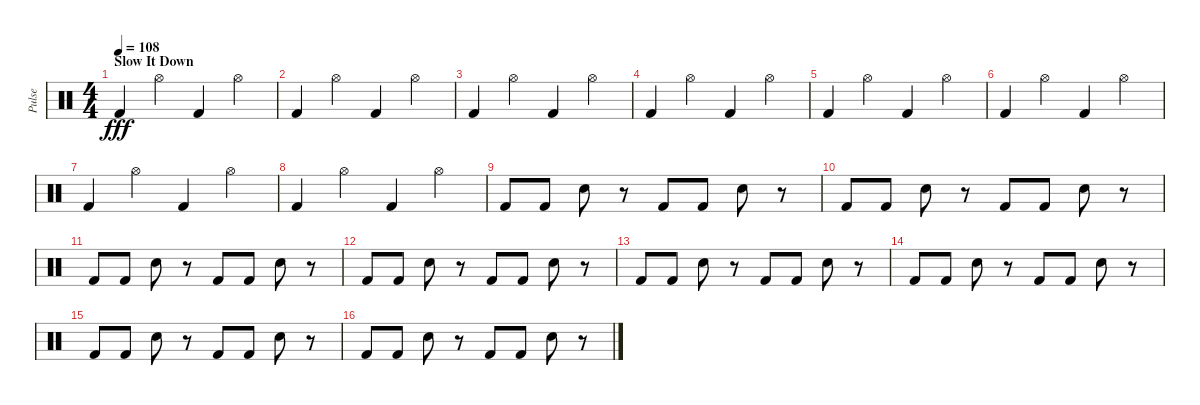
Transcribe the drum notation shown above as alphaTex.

\track ("Pulse" "Pulse") {instrument percussion}
\staff {score}
\articulation defaults
\ts (4 4)
\section ("" "Slow It Down")
\tempo 108
\clef neutral
\ks c "Kick (hit) 2".4{dy fff} "Hi-Hat (open)".4 "Kick (hit) 2".4 "Hi-Hat (open)".4
|
"Kick (hit) 2".4 "Hi-Hat (open)".4 "Kick (hit) 2".4 "Hi-Hat (open)".4 |
"Kick (hit) 2".4 "Hi-Hat (open)".4 "Kick (hit) 2".4 "Hi-Hat (open)".4 |
"Kick (hit) 2".4 "Hi-Hat (open)".4 "Kick (hit) 2".4 "Hi-Hat (open)".4 |
"Kick (hit) 2".4 "Hi-Hat (open)".4 "Kick (hit) 2".4 "Hi-Hat (open)".4 |
"Kick (hit) 2".4 "Hi-Hat (open)".4 "Kick (hit) 2".4 "Hi-Hat (open)".4 |
"Kick (hit) 2".4 "Hi-Hat (open)".4 "Kick (hit) 2".4 "Hi-Hat (open)".4 |
"Kick (hit) 2".4 "Hi-Hat (open)".4 "Kick (hit) 2".4 "Hi-Hat (open)".4 |
"Kick (hit) 2".8 "Kick (hit) 2".8 "Electric Snare (hit)".8 r.8 "Kick (hit) 2".8 "Kick (hit) 2".8 "Electric Snare (hit)".8 r.8 |
"Kick (hit) 2".8 "Kick (hit) 2".8 "Electric Snare (hit)".8 r.8 "Kick (hit) 2".8 "Kick (hit) 2".8 "Electric Snare (hit)".8 r.8 |
"Kick (hit) 2".8 "Kick (hit) 2".8 "Electric Snare (hit)".8 r.8 "Kick (hit) 2".8 "Kick (hit) 2".8 "Electric Snare (hit)".8 r.8 |
"Kick (hit) 2".8 "Kick (hit) 2".8 "Electric Snare (hit)".8 r.8 "Kick (hit) 2".8 "Kick (hit) 2".8 "Electric Snare (hit)".8 r.8 |
"Kick (hit) 2".8 "Kick (hit) 2".8 "Electric Snare (hit)".8 r.8 "Kick (hit) 2".8 "Kick (hit) 2".8 "Electric Snare (hit)".8 r.8 |
"Kick (hit) 2".8 "Kick (hit) 2".8 "Electric Snare (hit)".8 r.8 "Kick (hit) 2".8 "Kick (hit) 2".8 "Electric Snare (hit)".8 r.8 |
"Kick (hit) 2".8 "Kick (hit) 2".8 "Electric Snare (hit)".8 r.8 "Kick (hit) 2".8 "Kick (hit) 2".8 "Electric Snare (hit)".8 r.8 |
"Kick (hit) 2".8 "Kick (hit) 2".8 "Electric Snare (hit)".8 r.8 "Kick (hit) 2".8 "Kick (hit) 2".8 "Electric Snare (hit)".8 r.8
